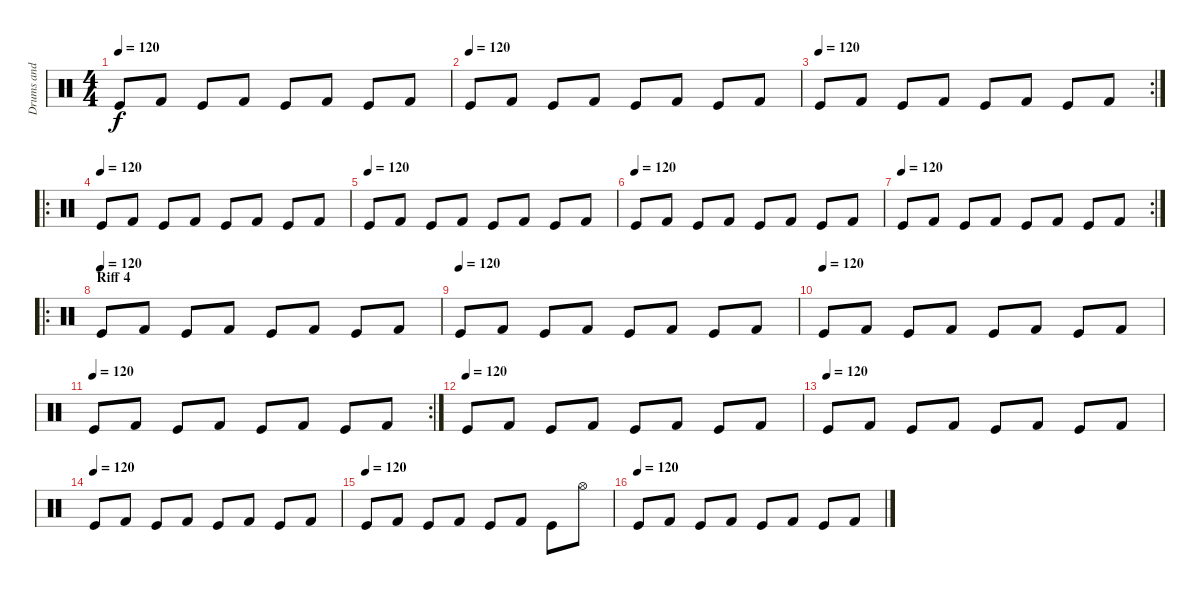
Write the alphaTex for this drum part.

\track ("Drums and Percussion" "Drums and ") {instrument percussion}
\staff {score}
\articulation defaults
\ts (4 4)
\tempo 120
\clef neutral
\ks c "Kick (hit)".8{dy f} "Kick (hit) 2".8 "Kick (hit)".8 "Kick (hit) 2".8 "Kick (hit)".8 "Kick (hit) 2".8 "Kick (hit)".8 "Kick (hit) 2".8
|
\tempo (120)
"Kick (hit)".8 "Kick (hit) 2".8 "Kick (hit)".8 "Kick (hit) 2".8 "Kick (hit)".8 "Kick (hit) 2".8 "Kick (hit)".8 "Kick (hit) 2".8 |
\rc 2
\tempo (120)
"Kick (hit)".8 "Kick (hit) 2".8 "Kick (hit)".8 "Kick (hit) 2".8 "Kick (hit)".8 "Kick (hit) 2".8 "Kick (hit)".8 "Kick (hit) 2".8 |
\ro
\tempo (120)
"Kick (hit)".8 "Kick (hit) 2".8 "Kick (hit)".8 "Kick (hit) 2".8 "Kick (hit)".8 "Kick (hit) 2".8 "Kick (hit)".8 "Kick (hit) 2".8 |
\tempo (120)
"Kick (hit)".8 "Kick (hit) 2".8 "Kick (hit)".8 "Kick (hit) 2".8 "Kick (hit)".8 "Kick (hit) 2".8 "Kick (hit)".8 "Kick (hit) 2".8 |
\tempo (120)
"Kick (hit)".8 "Kick (hit) 2".8 "Kick (hit)".8 "Kick (hit) 2".8 "Kick (hit)".8 "Kick (hit) 2".8 "Kick (hit)".8 "Kick (hit) 2".8 |
\rc 2
\tempo (120)
"Kick (hit)".8 "Kick (hit) 2".8 "Kick (hit)".8 "Kick (hit) 2".8 "Kick (hit)".8 "Kick (hit) 2".8 "Kick (hit)".8 "Kick (hit) 2".8 |
\ro
\section ("" "Riff 4")
\tempo (120)
"Kick (hit)".8 "Kick (hit) 2".8 "Kick (hit)".8 "Kick (hit) 2".8 "Kick (hit)".8 "Kick (hit) 2".8 "Kick (hit)".8 "Kick (hit) 2".8 |
\tempo (120)
"Kick (hit)".8 "Kick (hit) 2".8 "Kick (hit)".8 "Kick (hit) 2".8 "Kick (hit)".8 "Kick (hit) 2".8 "Kick (hit)".8 "Kick (hit) 2".8 |
\tempo (120)
"Kick (hit)".8 "Kick (hit) 2".8 "Kick (hit)".8 "Kick (hit) 2".8 "Kick (hit)".8 "Kick (hit) 2".8 "Kick (hit)".8 "Kick (hit) 2".8 |
\rc 2
\tempo (120)
"Kick (hit)".8 "Kick (hit) 2".8 "Kick (hit)".8 "Kick (hit) 2".8 "Kick (hit)".8 "Kick (hit) 2".8 "Kick (hit)".8 "Kick (hit) 2".8 |
\tempo (120)
"Kick (hit)".8 "Kick (hit) 2".8 "Kick (hit)".8 "Kick (hit) 2".8 "Kick (hit)".8 "Kick (hit) 2".8 "Kick (hit)".8 "Kick (hit) 2".8 |
\tempo (120)
"Kick (hit)".8 "Kick (hit) 2".8 "Kick (hit)".8 "Kick (hit) 2".8 "Kick (hit)".8 "Kick (hit) 2".8 "Kick (hit)".8 "Kick (hit) 2".8 |
\tempo (120)
"Kick (hit)".8 "Kick (hit) 2".8 "Kick (hit)".8 "Kick (hit) 2".8 "Kick (hit)".8 "Kick (hit) 2".8 "Kick (hit)".8 "Kick (hit) 2".8 |
\tempo (120)
"Kick (hit)".8 "Kick (hit) 2".8 "Kick (hit)".8 "Kick (hit) 2".8 "Kick (hit)".8 "Kick (hit) 2".8 "Kick (hit)".8 "Hi-Hat (open)".8 |
\tempo (120)
"Kick (hit)".8 "Kick (hit) 2".8 "Kick (hit)".8 "Kick (hit) 2".8 "Kick (hit)".8 "Kick (hit) 2".8 "Kick (hit)".8 "Kick (hit) 2".8
